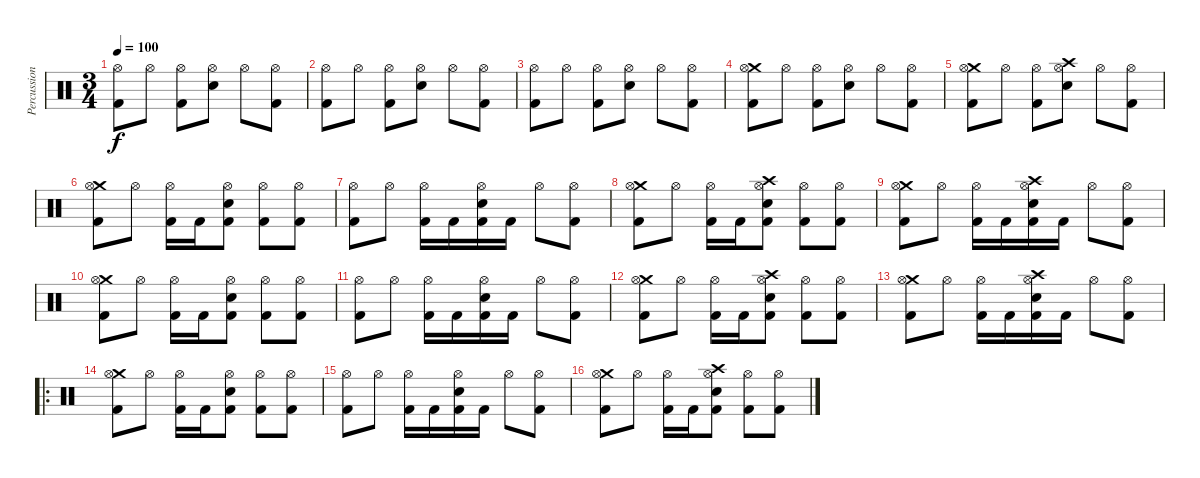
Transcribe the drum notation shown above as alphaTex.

\track ("Percussion" "Percussion") {instrument percussion}
\staff {score}
\articulation defaults
\ts (3 4)
\tempo 100
\clef neutral
\ks c
("Hi-Hat (open)" "Kick (hit) 2").8{dy f} "Hi-Hat (open)".8 ("Hi-Hat (open)" "Kick (hit) 2").8 ("Hi-Hat (open)" "Electric Snare (hit)").8 "Hi-Hat (open)".8 ("Hi-Hat (open)" "Kick (hit) 2").8 |
("Hi-Hat (open)" "Kick (hit) 2").8 "Hi-Hat (open)".8 ("Hi-Hat (open)" "Kick (hit) 2").8 ("Hi-Hat (open)" "Electric Snare (hit)").8 "Hi-Hat (open)".8 ("Hi-Hat (open)" "Kick (hit) 2").8 |
("Hi-Hat (open)" "Kick (hit) 2").8 "Hi-Hat (open)".8 ("Hi-Hat (open)" "Kick (hit) 2").8 ("Hi-Hat (open)" "Electric Snare (hit)").8 "Hi-Hat (open)".8 ("Hi-Hat (open)" "Kick (hit) 2").8 |
("Crash medium (hit)" "Hi-Hat (open)" "Kick (hit) 2").8 "Hi-Hat (open)".8 ("Hi-Hat (open)" "Kick (hit) 2").8 ("Hi-Hat (open)" "Electric Snare (hit)").8 "Hi-Hat (open)".8 ("Hi-Hat (open)" "Kick (hit) 2").8 |
("Crash medium (hit)" "Hi-Hat (open)" "Kick (hit) 2").8 "Hi-Hat (open)".8 ("Hi-Hat (open)" "Kick (hit) 2").8 ("Crash high (hit)" "Hi-Hat (open)" "Electric Snare (hit)").8 "Hi-Hat (open)".8 ("Hi-Hat (open)" "Kick (hit) 2").8 |
("Crash medium (hit)" "Hi-Hat (open)" "Kick (hit) 2").8 "Hi-Hat (open)".8 ("Hi-Hat (open)" "Kick (hit) 2").16 "Kick (hit) 2".16 ("Hi-Hat (open)" "Electric Snare (hit)" "Kick (hit) 2").8 ("Hi-Hat (open)" "Kick (hit) 2").8 ("Hi-Hat (open)" "Kick (hit) 2").8 |
("Hi-Hat (open)" "Kick (hit) 2").8 "Hi-Hat (open)".8 ("Hi-Hat (open)" "Kick (hit) 2").16 "Kick (hit) 2".16 ("Hi-Hat (open)" "Electric Snare (hit)" "Kick (hit) 2").16 "Kick (hit) 2".16 "Hi-Hat (open)".8 ("Hi-Hat (open)" "Kick (hit) 2").8 |
("Crash medium (hit)" "Hi-Hat (open)" "Kick (hit) 2").8 "Hi-Hat (open)".8 ("Hi-Hat (open)" "Kick (hit) 2").16 "Kick (hit) 2".16 ("Crash high (hit)" "Hi-Hat (open)" "Electric Snare (hit)" "Kick (hit) 2").8 ("Hi-Hat (open)" "Kick (hit) 2").8 ("Hi-Hat (open)" "Kick (hit) 2").8 |
("Crash medium (hit)" "Hi-Hat (open)" "Kick (hit) 2").8 "Hi-Hat (open)".8 ("Hi-Hat (open)" "Kick (hit) 2").16 "Kick (hit) 2".16 ("Crash high (hit)" "Hi-Hat (open)" "Electric Snare (hit)" "Kick (hit) 2").16 "Kick (hit) 2".16 "Hi-Hat (open)".8 ("Hi-Hat (open)" "Kick (hit) 2").8 |
("Crash medium (hit)" "Hi-Hat (open)" "Kick (hit) 2").8 "Hi-Hat (open)".8 ("Hi-Hat (open)" "Kick (hit) 2").16 "Kick (hit) 2".16 ("Hi-Hat (open)" "Electric Snare (hit)" "Kick (hit) 2").8 ("Hi-Hat (open)" "Kick (hit) 2").8 ("Hi-Hat (open)" "Kick (hit) 2").8 |
("Hi-Hat (open)" "Kick (hit) 2").8 "Hi-Hat (open)".8 ("Hi-Hat (open)" "Kick (hit) 2").16 "Kick (hit) 2".16 ("Hi-Hat (open)" "Electric Snare (hit)" "Kick (hit) 2").16 "Kick (hit) 2".16 "Hi-Hat (open)".8 ("Hi-Hat (open)" "Kick (hit) 2").8 |
("Crash medium (hit)" "Hi-Hat (open)" "Kick (hit) 2").8 "Hi-Hat (open)".8 ("Hi-Hat (open)" "Kick (hit) 2").16 "Kick (hit) 2".16 ("Crash high (hit)" "Hi-Hat (open)" "Electric Snare (hit)" "Kick (hit) 2").8 ("Hi-Hat (open)" "Kick (hit) 2").8 ("Hi-Hat (open)" "Kick (hit) 2").8 |
("Crash medium (hit)" "Hi-Hat (open)" "Kick (hit) 2").8 "Hi-Hat (open)".8 ("Hi-Hat (open)" "Kick (hit) 2").16 "Kick (hit) 2".16 ("Crash high (hit)" "Hi-Hat (open)" "Electric Snare (hit)" "Kick (hit) 2").16 "Kick (hit) 2".16 "Hi-Hat (open)".8 ("Hi-Hat (open)" "Kick (hit) 2").8 |
\ro
("Crash medium (hit)" "Hi-Hat (open)" "Kick (hit) 2").8 "Hi-Hat (open)".8 ("Hi-Hat (open)" "Kick (hit) 2").16 "Kick (hit) 2".16 ("Hi-Hat (open)" "Electric Snare (hit)" "Kick (hit) 2").8 ("Hi-Hat (open)" "Kick (hit) 2").8 ("Hi-Hat (open)" "Kick (hit) 2").8 |
("Hi-Hat (open)" "Kick (hit) 2").8 "Hi-Hat (open)".8 ("Hi-Hat (open)" "Kick (hit) 2").16 "Kick (hit) 2".16 ("Hi-Hat (open)" "Electric Snare (hit)" "Kick (hit) 2").16 "Kick (hit) 2".16 "Hi-Hat (open)".8 ("Hi-Hat (open)" "Kick (hit) 2").8 |
("Crash medium (hit)" "Hi-Hat (open)" "Kick (hit) 2").8 "Hi-Hat (open)".8 ("Hi-Hat (open)" "Kick (hit) 2").16 "Kick (hit) 2".16 ("Crash high (hit)" "Hi-Hat (open)" "Electric Snare (hit)" "Kick (hit) 2").8 ("Hi-Hat (open)" "Kick (hit) 2").8 ("Hi-Hat (open)" "Kick (hit) 2").8
